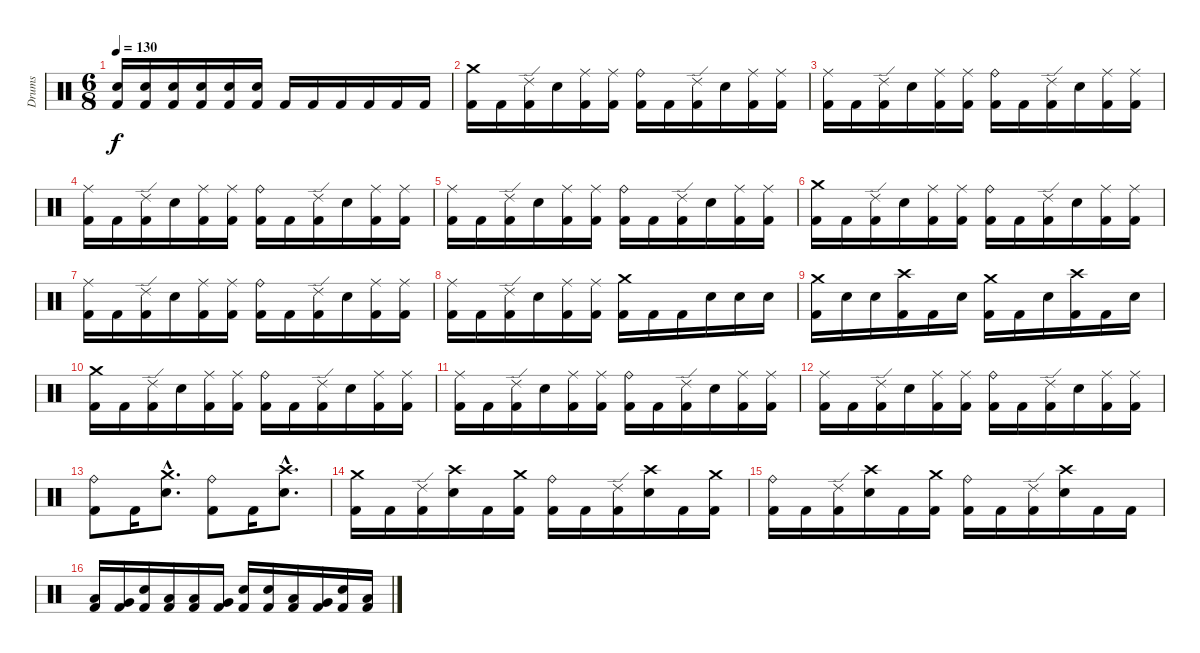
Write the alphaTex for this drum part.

\track ("Drums" "Drums") {instrument percussion}
\staff {score}
\articulation defaults
\ts (6 8)
\tempo 130
\clef neutral
\ks c
("Electric Snare (hit)" "Kick (hit) 2").16{dy f} ("Electric Snare (hit)" "Kick (hit) 2").16 ("Electric Snare (hit)" "Kick (hit) 2").16 ("Electric Snare (hit)" "Kick (hit) 2").16 ("Electric Snare (hit)" "Kick (hit) 2").16 ("Electric Snare (hit)" "Kick (hit) 2").16 "Kick (hit) 2".16 "Kick (hit) 2".16 "Kick (hit) 2".16 "Kick (hit) 2".16 "Kick (hit) 2".16 "Kick (hit) 2".16 |
("Crash medium (hit)" "Kick (hit) 2").16 "Kick (hit) 2".16 ("Ride (edge) 2" "Kick (hit) 2").16 "Electric Snare (hit)".16 ("Ride (middle)" "Kick (hit) 2").16 ("Ride (middle)" "Kick (hit) 2").16 ("Ride (bell)" "Kick (hit) 2").16 "Kick (hit) 2".16 ("Ride (edge) 2" "Kick (hit) 2").16 "Electric Snare (hit)".16 ("Ride (middle)" "Kick (hit) 2").16 ("Ride (middle)" "Kick (hit) 2").16 |
("Ride (middle)" "Kick (hit) 2").16 "Kick (hit) 2".16 ("Ride (edge) 2" "Kick (hit) 2").16 "Electric Snare (hit)".16 ("Ride (middle)" "Kick (hit) 2").16 ("Ride (middle)" "Kick (hit) 2").16 ("Ride (bell)" "Kick (hit) 2").16 "Kick (hit) 2".16 ("Ride (edge) 2" "Kick (hit) 2").16 "Electric Snare (hit)".16 ("Ride (middle)" "Kick (hit) 2").16 ("Ride (middle)" "Kick (hit) 2").16 |
("Ride (middle)" "Kick (hit) 2").16 "Kick (hit) 2".16 ("Ride (edge) 2" "Kick (hit) 2").16 "Electric Snare (hit)".16 ("Ride (middle)" "Kick (hit) 2").16 ("Ride (middle)" "Kick (hit) 2").16 ("Ride (bell)" "Kick (hit) 2").16 "Kick (hit) 2".16 ("Ride (edge) 2" "Kick (hit) 2").16 "Electric Snare (hit)".16 ("Ride (middle)" "Kick (hit) 2").16 ("Ride (middle)" "Kick (hit) 2").16 |
("Ride (middle)" "Kick (hit) 2").16 "Kick (hit) 2".16 ("Ride (edge) 2" "Kick (hit) 2").16 "Electric Snare (hit)".16 ("Ride (middle)" "Kick (hit) 2").16 ("Ride (middle)" "Kick (hit) 2").16 ("Ride (bell)" "Kick (hit) 2").16 "Kick (hit) 2".16 ("Ride (edge) 2" "Kick (hit) 2").16 "Electric Snare (hit)".16 ("Ride (middle)" "Kick (hit) 2").16 ("Ride (middle)" "Kick (hit) 2").16 |
("Crash medium (hit)" "Kick (hit) 2").16 "Kick (hit) 2".16 ("Ride (edge) 2" "Kick (hit) 2").16 "Electric Snare (hit)".16 ("Ride (middle)" "Kick (hit) 2").16 ("Ride (middle)" "Kick (hit) 2").16 ("Ride (bell)" "Kick (hit) 2").16 "Kick (hit) 2".16 ("Ride (edge) 2" "Kick (hit) 2").16 "Electric Snare (hit)".16 ("Ride (middle)" "Kick (hit) 2").16 ("Ride (middle)" "Kick (hit) 2").16 |
("Ride (middle)" "Kick (hit) 2").16 "Kick (hit) 2".16 ("Ride (edge) 2" "Kick (hit) 2").16 "Electric Snare (hit)".16 ("Ride (middle)" "Kick (hit) 2").16 ("Ride (middle)" "Kick (hit) 2").16 ("Ride (bell)" "Kick (hit) 2").16 "Kick (hit) 2".16 ("Ride (edge) 2" "Kick (hit) 2").16 "Electric Snare (hit)".16 ("Ride (middle)" "Kick (hit) 2").16 ("Ride (middle)" "Kick (hit) 2").16 |
("Ride (middle)" "Kick (hit) 2").16 "Kick (hit) 2".16 ("Ride (edge) 2" "Kick (hit) 2").16 "Electric Snare (hit)".16 ("Ride (middle)" "Kick (hit) 2").16 ("Ride (middle)" "Kick (hit) 2").16 ("Crash medium (hit)" "Kick (hit) 2").16 "Kick (hit) 2".16 "Kick (hit) 2".16 "Electric Snare (hit)".16 "Electric Snare (hit)".16 "Electric Snare (hit)".16 |
("Crash medium (hit)" "Kick (hit) 2").16 "Electric Snare (hit)".16 "Electric Snare (hit)".16 ("Crash high (hit)" "Kick (hit) 2").16 "Kick (hit) 2".16 "Electric Snare (hit)".16 ("Crash medium (hit)" "Kick (hit) 2").16 "Kick (hit) 2".16 "Electric Snare (hit)".16 ("Crash high (hit)" "Kick (hit) 2").16 "Kick (hit) 2".16 "Electric Snare (hit)".16 |
("Crash medium (hit)" "Kick (hit) 2").16 "Kick (hit) 2".16 ("Ride (edge) 2" "Kick (hit) 2").16 "Electric Snare (hit)".16 ("Ride (middle)" "Kick (hit) 2").16 ("Ride (middle)" "Kick (hit) 2").16 ("Ride (bell)" "Kick (hit) 2").16 "Kick (hit) 2".16 ("Ride (edge) 2" "Kick (hit) 2").16 "Electric Snare (hit)".16 ("Ride (middle)" "Kick (hit) 2").16 ("Ride (middle)" "Kick (hit) 2").16 |
("Ride (middle)" "Kick (hit) 2").16 "Kick (hit) 2".16 ("Ride (edge) 2" "Kick (hit) 2").16 "Electric Snare (hit)".16 ("Ride (middle)" "Kick (hit) 2").16 ("Ride (middle)" "Kick (hit) 2").16 ("Ride (bell)" "Kick (hit) 2").16 "Kick (hit) 2".16 ("Ride (edge) 2" "Kick (hit) 2").16 "Electric Snare (hit)".16 ("Ride (middle)" "Kick (hit) 2").16 ("Ride (middle)" "Kick (hit) 2").16 |
("Ride (middle)" "Kick (hit) 2").16 "Kick (hit) 2".16 ("Ride (edge) 2" "Kick (hit) 2").16 "Electric Snare (hit)".16 ("Ride (middle)" "Kick (hit) 2").16 ("Ride (middle)" "Kick (hit) 2").16 ("Ride (bell)" "Kick (hit) 2").16 "Kick (hit) 2".16 ("Ride (edge) 2" "Kick (hit) 2").16 "Electric Snare (hit)".16 ("Ride (middle)" "Kick (hit) 2").16 ("Ride (middle)" "Kick (hit) 2").16 |
("Ride (bell)" "Kick (hit) 2").8 "Kick (hit) 2".16 ("Crash medium (hit)"{hac} "Electric Snare (hit)"{hac}).8{d} ("Ride (bell)" "Kick (hit) 2").8 "Kick (hit) 2".16 ("Crash high (hit)"{hac} "Electric Snare (hit)"{hac}).8{d} |
("Crash medium (hit)" "Kick (hit) 2").16 "Kick (hit) 2".16 ("Ride (edge) 2" "Kick (hit) 2").16 ("Crash high (hit)" "Electric Snare (hit)").16 "Kick (hit) 2".16 ("Crash medium (hit)" "Kick (hit) 2").16 ("Ride (bell)" "Kick (hit) 2").16 "Kick (hit) 2".16 ("Ride (edge) 2" "Kick (hit) 2").16 ("Crash high (hit)" "Electric Snare (hit)").16 "Kick (hit) 2".16 ("Crash medium (hit)" "Kick (hit) 2").16 |
("Ride (bell)" "Kick (hit) 2").16 "Kick (hit) 2".16 ("Ride (edge) 2" "Kick (hit) 2").16 ("Crash high (hit)" "Electric Snare (hit)").16 "Kick (hit) 2".16 ("Crash medium (hit)" "Kick (hit) 2").16 ("Ride (bell)" "Kick (hit) 2").16 "Kick (hit) 2".16 ("Ride (edge) 2" "Kick (hit) 2").16 ("Crash high (hit)" "Electric Snare (hit)").16 "Kick (hit) 2".16 "Kick (hit) 2".16 |
("Low Tom (hit)" "Kick (hit) 2").16 ("Very Low Tom (hit)" "Kick (hit) 2").16 ("Electric Snare (hit)" "Kick (hit) 2").16 ("Low Tom (hit)" "Kick (hit) 2").16 ("Low Tom (hit)" "Kick (hit) 2").16 ("Very Low Tom (hit)" "Kick (hit) 2").16 ("Electric Snare (hit)" "Kick (hit) 2").16 ("Electric Snare (hit)" "Kick (hit) 2").16 ("Low Tom (hit)" "Kick (hit) 2").16 ("Very Low Tom (hit)" "Kick (hit) 2").16 ("Electric Snare (hit)" "Kick (hit) 2").16 ("Low Tom (hit)" "Kick (hit) 2").16
